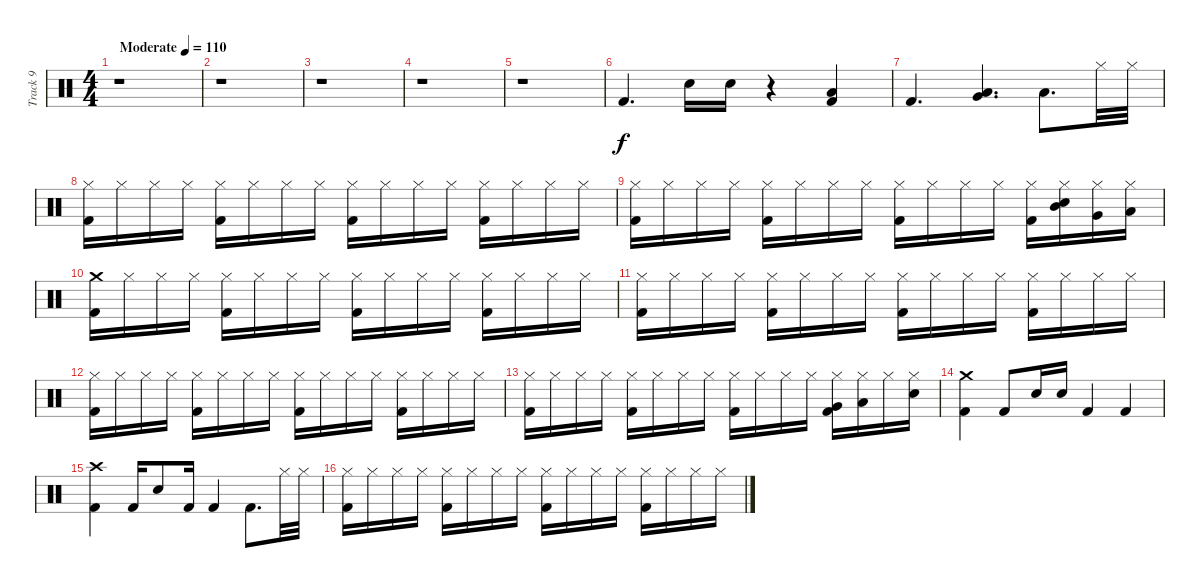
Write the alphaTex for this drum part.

\track ("Track 9" "Track 9") {instrument percussion}
\staff {score}
\articulation defaults
\ts (4 4)
\tempo (110 "Moderate")
\clef neutral
\ks c
r.1{dy f} |
r.1 |
r.1 |
r.1 |
r.1 |
"Kick (hit) 2".4{d} "Snare (hit) 2".16 "Snare (hit) 2".16 r.4 ("Low Floor Tom (hit)" "Kick (hit) 2").4 |
"Kick (hit) 2".4{d} ("Low Tom (hit)" "Very Low Tom (hit)").4{d} "Low Floor Tom (hit)".8{d} "Hi-Hat (closed)".32 "Hi-Hat (closed)".32 |
("Hi-Hat (closed)" "Kick (hit) 2").16 "Hi-Hat (closed)".16 "Hi-Hat (closed)".16 "Hi-Hat (closed)".16 ("Hi-Hat (closed)" "Kick (hit) 2").16 "Hi-Hat (closed)".16 "Hi-Hat (closed)".16 "Hi-Hat (closed)".16 ("Hi-Hat (closed)" "Kick (hit) 2").16 "Hi-Hat (closed)".16 "Hi-Hat (closed)".16 "Hi-Hat (closed)".16 ("Hi-Hat (closed)" "Kick (hit) 2").16 "Hi-Hat (closed)".16 "Hi-Hat (closed)".16 "Hi-Hat (closed)".16 |
("Hi-Hat (closed)" "Kick (hit) 2").16 "Hi-Hat (closed)".16 "Hi-Hat (closed)".16 "Hi-Hat (closed)".16 ("Hi-Hat (closed)" "Kick (hit) 2").16 "Hi-Hat (closed)".16 "Hi-Hat (closed)".16 "Hi-Hat (closed)".16 ("Hi-Hat (closed)" "Kick (hit) 2").16 "Hi-Hat (closed)".16 "Hi-Hat (closed)".16 "Hi-Hat (closed)".16 ("Hi-Hat (closed)" "Kick (hit) 2").16 ("Hi-Hat (closed)" "Mid Tom (hit)" "Snare (hit) 2").16 ("Hi-Hat (closed)" "Very Low Tom (hit)").16 ("Hi-Hat (closed)" "Low Floor Tom (hit)").16 |
("Crash medium (hit)" "Kick (hit) 2").16 "Hi-Hat (closed)".16 "Hi-Hat (closed)".16 "Hi-Hat (closed)".16 ("Hi-Hat (closed)" "Kick (hit) 2").16 "Hi-Hat (closed)".16 "Hi-Hat (closed)".16 "Hi-Hat (closed)".16 ("Hi-Hat (closed)" "Kick (hit) 2").16 "Hi-Hat (closed)".16 "Hi-Hat (closed)".16 "Hi-Hat (closed)".16 ("Hi-Hat (closed)" "Kick (hit) 2").16 "Hi-Hat (closed)".16 "Hi-Hat (closed)".16 "Hi-Hat (closed)".16 |
("Hi-Hat (closed)" "Kick (hit) 2").16 "Hi-Hat (closed)".16 "Hi-Hat (closed)".16 "Hi-Hat (closed)".16 ("Hi-Hat (closed)" "Kick (hit) 2").16 "Hi-Hat (closed)".16 "Hi-Hat (closed)".16 "Hi-Hat (closed)".16 ("Hi-Hat (closed)" "Kick (hit) 2").16 "Hi-Hat (closed)".16 "Hi-Hat (closed)".16 "Hi-Hat (closed)".16 ("Hi-Hat (closed)" "Kick (hit) 2").16 "Hi-Hat (closed)".16 "Hi-Hat (closed)".16 "Hi-Hat (closed)".16 |
("Hi-Hat (closed)" "Kick (hit) 2").16 "Hi-Hat (closed)".16 "Hi-Hat (closed)".16 "Hi-Hat (closed)".16 ("Hi-Hat (closed)" "Kick (hit) 2").16 "Hi-Hat (closed)".16 "Hi-Hat (closed)".16 "Hi-Hat (closed)".16 ("Hi-Hat (closed)" "Kick (hit) 2").16 "Hi-Hat (closed)".16 "Hi-Hat (closed)".16 "Hi-Hat (closed)".16 ("Hi-Hat (closed)" "Kick (hit) 2").16 "Hi-Hat (closed)".16 "Hi-Hat (closed)".16 "Hi-Hat (closed)".16 |
("Hi-Hat (closed)" "Kick (hit) 2").16 "Hi-Hat (closed)".16 "Hi-Hat (closed)".16 "Hi-Hat (closed)".16 ("Hi-Hat (closed)" "Kick (hit) 2").16 "Hi-Hat (closed)".16 "Hi-Hat (closed)".16 "Hi-Hat (closed)".16 ("Hi-Hat (closed)" "Kick (hit) 2").16 "Hi-Hat (closed)".16 "Hi-Hat (closed)".16 "Hi-Hat (closed)".16 ("Hi-Hat (closed)" "Very Low Tom (hit)" "Kick (hit) 2").16 ("Hi-Hat (closed)" "Low Floor Tom (hit)").16 "Hi-Hat (closed)".16 ("Hi-Hat (closed)" "Snare (hit) 2").16 |
("Crash medium (hit)" "Kick (hit) 2").4 "Kick (hit) 2".8 "Snare (hit) 2".16 "Snare (hit) 2".16 "Kick (hit) 2".4 "Kick (hit) 2".4 |
("Crash high (hit)" "Kick (hit) 2").4 "Kick (hit) 2".16 "Snare (hit) 2".8 "Kick (hit) 2".16 "Kick (hit) 2".4 "Kick (hit) 2".8{d} "Hi-Hat (closed)".32 "Hi-Hat (closed)".32 |
("Hi-Hat (closed)" "Kick (hit) 2").16 "Hi-Hat (closed)".16 "Hi-Hat (closed)".16 "Hi-Hat (closed)".16 ("Hi-Hat (closed)" "Kick (hit) 2").16 "Hi-Hat (closed)".16 "Hi-Hat (closed)".16 "Hi-Hat (closed)".16 ("Hi-Hat (closed)" "Kick (hit) 2").16 "Hi-Hat (closed)".16 "Hi-Hat (closed)".16 "Hi-Hat (closed)".16 ("Hi-Hat (closed)" "Kick (hit) 2").16 "Hi-Hat (closed)".16 "Hi-Hat (closed)".16 "Hi-Hat (closed)".16
